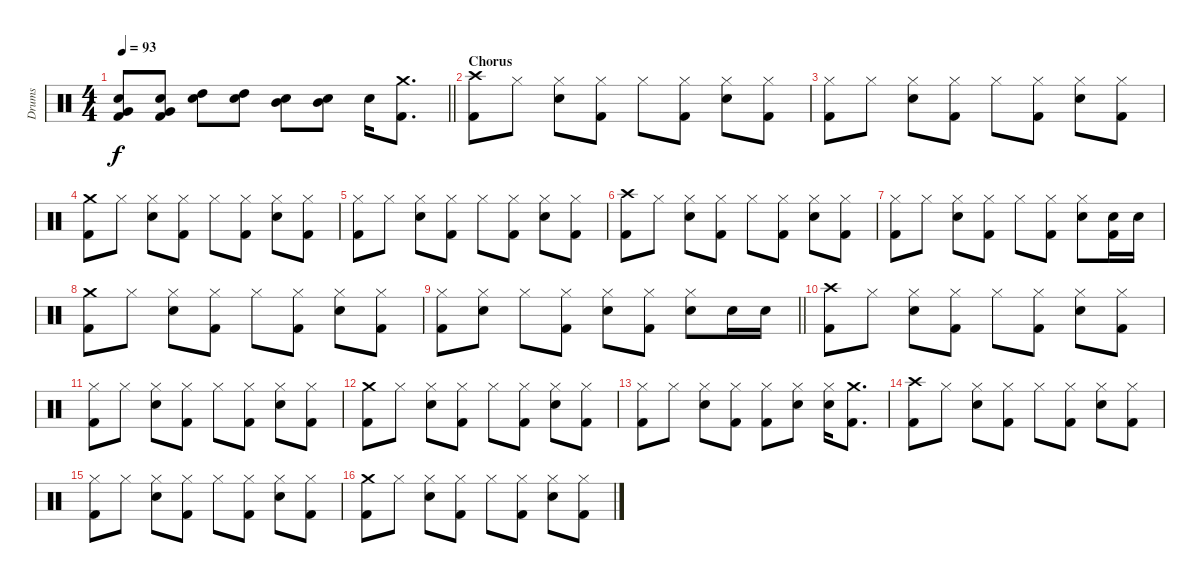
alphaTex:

\track ("Drums" "Drums") {instrument percussion}
\staff {score}
\articulation defaults
\ts (4 4)
\tempo 93
\clef neutral
\barLineRight lightlight
\ks c
("Electric Snare (hit)" "Very Low Tom (hit)" "Kick (hit) 2").8{dy f} ("Electric Snare (hit)" "Very Low Tom (hit)" "Kick (hit) 2").8 ("Electric Snare (hit)" "High Tom (hit)").8 ("Electric Snare (hit)" "High Tom (hit)").8 ("Electric Snare (hit)" "Mid Tom (hit)").8 ("Electric Snare (hit)" "Mid Tom (hit)").8 "Electric Snare (hit)".16 ("Crash medium (hit)" "Kick (hit) 2").8{d} |
\section ("" "Chorus")
("Crash high (hit)" "Kick (hit) 2").8 "Hi-Hat (closed)".8 ("Hi-Hat (closed)" "Electric Snare (hit)").8 ("Hi-Hat (closed)" "Kick (hit) 2").8 "Hi-Hat (closed)".8 ("Hi-Hat (closed)" "Kick (hit) 2").8 ("Hi-Hat (closed)" "Electric Snare (hit)").8 ("Hi-Hat (closed)" "Kick (hit) 2").8 |
("Hi-Hat (closed)" "Kick (hit) 2").8 "Hi-Hat (closed)".8 ("Hi-Hat (closed)" "Electric Snare (hit)").8 ("Hi-Hat (closed)" "Kick (hit) 2").8 "Hi-Hat (closed)".8 ("Hi-Hat (closed)" "Kick (hit) 2").8 ("Hi-Hat (closed)" "Electric Snare (hit)").8 ("Hi-Hat (closed)" "Kick (hit) 2").8 |
("Crash medium (hit)" "Kick (hit) 2").8 "Hi-Hat (closed)".8 ("Hi-Hat (closed)" "Electric Snare (hit)").8 ("Hi-Hat (closed)" "Kick (hit) 2").8 "Hi-Hat (closed)".8 ("Hi-Hat (closed)" "Kick (hit) 2").8 ("Hi-Hat (closed)" "Electric Snare (hit)").8 ("Hi-Hat (closed)" "Kick (hit) 2").8 |
("Hi-Hat (closed)" "Kick (hit) 2").8 "Hi-Hat (closed)".8 ("Hi-Hat (closed)" "Electric Snare (hit)").8 ("Hi-Hat (closed)" "Kick (hit) 2").8 "Hi-Hat (closed)".8 ("Hi-Hat (closed)" "Kick (hit) 2").8 ("Hi-Hat (closed)" "Electric Snare (hit)").8 ("Hi-Hat (closed)" "Kick (hit) 2").8 |
("Crash high (hit)" "Kick (hit) 2").8 "Hi-Hat (closed)".8 ("Hi-Hat (closed)" "Electric Snare (hit)").8 ("Hi-Hat (closed)" "Kick (hit) 2").8 "Hi-Hat (closed)".8 ("Hi-Hat (closed)" "Kick (hit) 2").8 ("Hi-Hat (closed)" "Electric Snare (hit)").8 ("Hi-Hat (closed)" "Kick (hit) 2").8 |
("Hi-Hat (closed)" "Kick (hit) 2").8 "Hi-Hat (closed)".8 ("Hi-Hat (closed)" "Electric Snare (hit)").8 ("Hi-Hat (closed)" "Kick (hit) 2").8 "Hi-Hat (closed)".8 ("Hi-Hat (closed)" "Kick (hit) 2").8 ("Hi-Hat (closed)" "Electric Snare (hit)").8 ("Electric Snare (hit)" "Kick (hit) 2").16 "Electric Snare (hit)".16 |
("Crash medium (hit)" "Kick (hit) 2").8 "Hi-Hat (closed)".8 ("Hi-Hat (closed)" "Electric Snare (hit)").8 ("Hi-Hat (closed)" "Kick (hit) 2").8 "Hi-Hat (closed)".8 ("Hi-Hat (closed)" "Kick (hit) 2").8 ("Hi-Hat (closed)" "Electric Snare (hit)").8 ("Hi-Hat (closed)" "Kick (hit) 2").8 |
\barLineRight lightlight
("Hi-Hat (closed)" "Kick (hit) 2").8 ("Hi-Hat (closed)" "Electric Snare (hit)").8 "Hi-Hat (closed)".8 ("Hi-Hat (closed)" "Kick (hit) 2").8 ("Hi-Hat (closed)" "Electric Snare (hit)").8 ("Hi-Hat (closed)" "Kick (hit) 2").8 ("Hi-Hat (closed)" "Electric Snare (hit)").8 "Electric Snare (hit)".16 "Electric Snare (hit)".16 |
("Crash high (hit)" "Kick (hit) 2").8 "Hi-Hat (closed)".8 ("Hi-Hat (closed)" "Electric Snare (hit)").8 ("Hi-Hat (closed)" "Kick (hit) 2").8 "Hi-Hat (closed)".8 ("Hi-Hat (closed)" "Kick (hit) 2").8 ("Hi-Hat (closed)" "Electric Snare (hit)").8 ("Hi-Hat (closed)" "Kick (hit) 2").8 |
("Hi-Hat (closed)" "Kick (hit) 2").8 "Hi-Hat (closed)".8 ("Hi-Hat (closed)" "Electric Snare (hit)").8 ("Hi-Hat (closed)" "Kick (hit) 2").8 "Hi-Hat (closed)".8 ("Hi-Hat (closed)" "Kick (hit) 2").8 ("Hi-Hat (closed)" "Electric Snare (hit)").8 ("Hi-Hat (closed)" "Kick (hit) 2").8 |
("Crash medium (hit)" "Kick (hit) 2").8 "Hi-Hat (closed)".8 ("Hi-Hat (closed)" "Electric Snare (hit)").8 ("Hi-Hat (closed)" "Kick (hit) 2").8 "Hi-Hat (closed)".8 ("Hi-Hat (closed)" "Kick (hit) 2").8 ("Hi-Hat (closed)" "Electric Snare (hit)").8 ("Hi-Hat (closed)" "Kick (hit) 2").8 |
("Hi-Hat (closed)" "Kick (hit) 2").8 "Hi-Hat (closed)".8 ("Hi-Hat (closed)" "Electric Snare (hit)").8 ("Hi-Hat (closed)" "Kick (hit) 2").8 ("Hi-Hat (closed)" "Kick (hit) 2").8 ("Hi-Hat (closed)" "Electric Snare (hit)").8 ("Hi-Hat (closed)" "Electric Snare (hit)").16 ("Crash medium (hit)" "Kick (hit) 2").8{d} |
("Crash high (hit)" "Kick (hit) 2").8 "Hi-Hat (closed)".8 ("Hi-Hat (closed)" "Electric Snare (hit)").8 ("Hi-Hat (closed)" "Kick (hit) 2").8 "Hi-Hat (closed)".8 ("Hi-Hat (closed)" "Kick (hit) 2").8 ("Hi-Hat (closed)" "Electric Snare (hit)").8 ("Hi-Hat (closed)" "Kick (hit) 2").8 |
("Hi-Hat (closed)" "Kick (hit) 2").8 "Hi-Hat (closed)".8 ("Hi-Hat (closed)" "Electric Snare (hit)").8 ("Hi-Hat (closed)" "Kick (hit) 2").8 "Hi-Hat (closed)".8 ("Hi-Hat (closed)" "Kick (hit) 2").8 ("Hi-Hat (closed)" "Electric Snare (hit)").8 ("Hi-Hat (closed)" "Kick (hit) 2").8 |
("Crash medium (hit)" "Kick (hit) 2").8 "Hi-Hat (closed)".8 ("Hi-Hat (closed)" "Electric Snare (hit)").8 ("Hi-Hat (closed)" "Kick (hit) 2").8 "Hi-Hat (closed)".8 ("Hi-Hat (closed)" "Kick (hit) 2").8 ("Hi-Hat (closed)" "Electric Snare (hit)").8 ("Hi-Hat (closed)" "Kick (hit) 2").8
